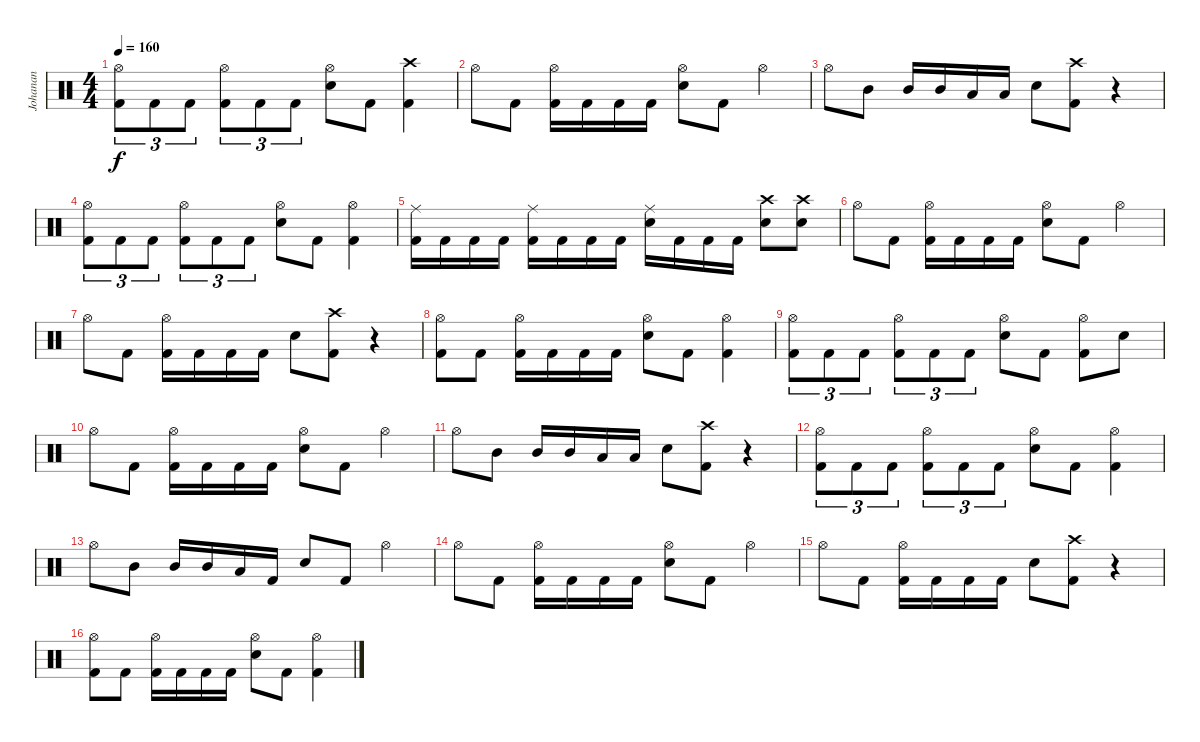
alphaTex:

\track ("Johanan" "Johanan") {instrument percussion}
\staff {score}
\articulation defaults
\ts (4 4)
\tempo 160
\clef neutral
\ks c
("Hi-Hat (open)" "Kick (hit) 2").8{tu (3 2) dy f} "Kick (hit) 2".8{tu (3 2)} "Kick (hit) 2".8{tu (3 2)} ("Hi-Hat (open)" "Kick (hit) 2").8{tu (3 2)} "Kick (hit) 2".8{tu (3 2)} "Kick (hit) 2".8{tu (3 2)} ("Hi-Hat (open)" "Electric Snare (hit)").8 "Kick (hit) 2".8 ("Crash high (hit)" "Kick (hit) 2").4 |
"Hi-Hat (open)".8 "Kick (hit) 2".8 ("Hi-Hat (open)" "Kick (hit) 2").16 "Kick (hit) 2".16 "Kick (hit) 2".16 "Kick (hit) 2".16 ("Hi-Hat (open)" "Electric Snare (hit)").8 "Kick (hit) 2".8 "Hi-Hat (open)".4 |
"Hi-Hat (open)".8 "Mid Tom (hit)".8 "Mid Tom (hit)".16 "Mid Tom (hit)".16 "Low Tom (hit)".16 "Low Tom (hit)".16 "Electric Snare (hit)".8 ("Crash high (hit)" "Kick (hit) 2").8 r.4 |
("Hi-Hat (open)" "Kick (hit) 2").8{tu (3 2)} "Kick (hit) 2".8{tu (3 2)} "Kick (hit) 2".8{tu (3 2)} ("Hi-Hat (open)" "Kick (hit) 2").8{tu (3 2)} "Kick (hit) 2".8{tu (3 2)} "Kick (hit) 2".8{tu (3 2)} ("Hi-Hat (open)" "Electric Snare (hit)").8 "Kick (hit) 2".8 ("Hi-Hat (open)" "Kick (hit) 2").4 |
("Ride (middle)" "Kick (hit) 2").16 "Kick (hit) 2".16 "Kick (hit) 2".16 "Kick (hit) 2".16 ("Ride (middle)" "Kick (hit) 2").16 "Kick (hit) 2".16 "Kick (hit) 2".16 "Kick (hit) 2".16 ("Ride (middle)" "Electric Snare (hit)").16 "Kick (hit) 2".16 "Kick (hit) 2".16 "Kick (hit) 2".16 ("Crash high (hit)" "Electric Snare (hit)").8 ("Crash high (hit)" "Electric Snare (hit)").8 |
"Hi-Hat (open)".8 "Kick (hit) 2".8 ("Hi-Hat (open)" "Kick (hit) 2").16 "Kick (hit) 2".16 "Kick (hit) 2".16 "Kick (hit) 2".16 ("Hi-Hat (open)" "Electric Snare (hit)").8 "Kick (hit) 2".8 "Hi-Hat (open)".4 |
"Hi-Hat (open)".8 "Kick (hit) 2".8 ("Hi-Hat (open)" "Kick (hit) 2").16 "Kick (hit) 2".16 "Kick (hit) 2".16 "Kick (hit) 2".16 "Electric Snare (hit)".8 ("Crash high (hit)" "Kick (hit) 2").8 r.4 |
("Hi-Hat (open)" "Kick (hit) 2").8 "Kick (hit) 2".8 ("Hi-Hat (open)" "Kick (hit) 2").16 "Kick (hit) 2".16 "Kick (hit) 2".16 "Kick (hit) 2".16 ("Hi-Hat (open)" "Electric Snare (hit)").8 "Kick (hit) 2".8 ("Hi-Hat (open)" "Kick (hit) 2").4 |
("Hi-Hat (open)" "Kick (hit) 2").8{tu (3 2)} "Kick (hit) 2".8{tu (3 2)} "Kick (hit) 2".8{tu (3 2)} ("Hi-Hat (open)" "Kick (hit) 2").8{tu (3 2)} "Kick (hit) 2".8{tu (3 2)} "Kick (hit) 2".8{tu (3 2)} ("Hi-Hat (open)" "Electric Snare (hit)").8 "Kick (hit) 2".8 ("Hi-Hat (open)" "Kick (hit) 2").8 "Electric Snare (hit)".8 |
"Hi-Hat (open)".8 "Kick (hit) 2".8 ("Hi-Hat (open)" "Kick (hit) 2").16 "Kick (hit) 2".16 "Kick (hit) 2".16 "Kick (hit) 2".16 ("Hi-Hat (open)" "Electric Snare (hit)").8 "Kick (hit) 2".8 "Hi-Hat (open)".4 |
"Hi-Hat (open)".8 "Mid Tom (hit)".8 "Mid Tom (hit)".16 "Mid Tom (hit)".16 "Low Tom (hit)".16 "Low Tom (hit)".16 "Electric Snare (hit)".8 ("Crash high (hit)" "Kick (hit) 2").8 r.4 |
("Hi-Hat (open)" "Kick (hit) 2").8{tu (3 2)} "Kick (hit) 2".8{tu (3 2)} "Kick (hit) 2".8{tu (3 2)} ("Hi-Hat (open)" "Kick (hit) 2").8{tu (3 2)} "Kick (hit) 2".8{tu (3 2)} "Kick (hit) 2".8{tu (3 2)} ("Hi-Hat (open)" "Electric Snare (hit)").8 "Kick (hit) 2".8 ("Hi-Hat (open)" "Kick (hit) 2").4 |
"Hi-Hat (open)".8 "Mid Tom (hit)".8 "Mid Tom (hit)".16 "Mid Tom (hit)".16 "Low Tom (hit)".16 "Kick (hit) 2".16 "Electric Snare (hit)".8 "Kick (hit) 2".8 "Hi-Hat (open)".4 |
"Hi-Hat (open)".8 "Kick (hit) 2".8 ("Hi-Hat (open)" "Kick (hit) 2").16 "Kick (hit) 2".16 "Kick (hit) 2".16 "Kick (hit) 2".16 ("Hi-Hat (open)" "Electric Snare (hit)").8 "Kick (hit) 2".8 "Hi-Hat (open)".4 |
"Hi-Hat (open)".8 "Kick (hit) 2".8 ("Hi-Hat (open)" "Kick (hit) 2").16 "Kick (hit) 2".16 "Kick (hit) 2".16 "Kick (hit) 2".16 "Electric Snare (hit)".8 ("Crash high (hit)" "Kick (hit) 2").8 r.4 |
("Hi-Hat (open)" "Kick (hit) 2").8 "Kick (hit) 2".8 ("Hi-Hat (open)" "Kick (hit) 2").16 "Kick (hit) 2".16 "Kick (hit) 2".16 "Kick (hit) 2".16 ("Hi-Hat (open)" "Electric Snare (hit)").8 "Kick (hit) 2".8 ("Hi-Hat (open)" "Kick (hit) 2").4
